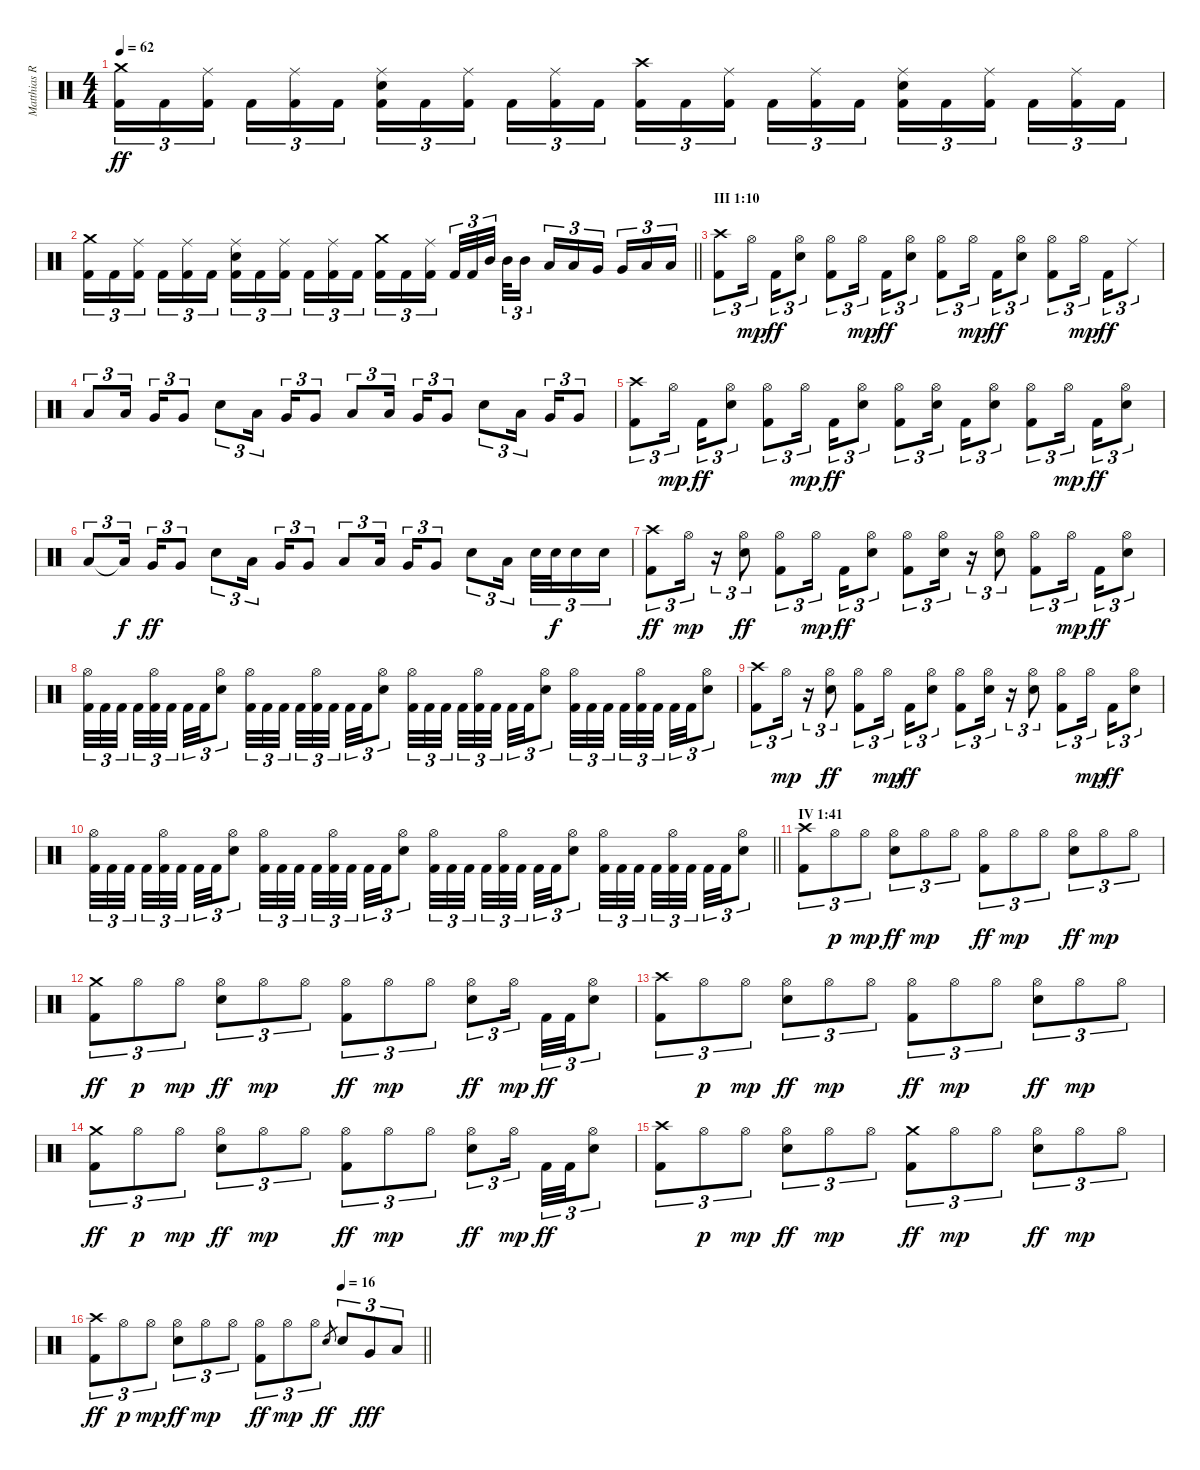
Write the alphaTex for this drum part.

\track ("Matthias R." "Matthias R") {instrument percussion}
\staff {score}
\articulation defaults
\ts (4 4)
\tempo 62
\clef neutral
\ks c
("Crash medium (hit)" "Kick (hit) 2").16{tu (3 2) dy ff} "Kick (hit) 2".16{tu (3 2)} ("Ride (middle)" "Kick (hit) 2").16{tu (3 2) beam splitsecondary} "Kick (hit) 2".16{tu (3 2)} ("Ride (middle)" "Kick (hit) 2").16{tu (3 2)} "Kick (hit) 2".16{tu (3 2)} ("Ride (middle)" "Electric Snare (hit)" "Kick (hit) 2").16{tu (3 2)} "Kick (hit) 2".16{tu (3 2)} ("Ride (middle)" "Kick (hit) 2").16{tu (3 2) beam splitsecondary} "Kick (hit) 2".16{tu (3 2)} ("Ride (middle)" "Kick (hit) 2").16{tu (3 2)} "Kick (hit) 2".16{tu (3 2)} ("Crash high (hit)" "Kick (hit) 2").16{tu (3 2)} "Kick (hit) 2".16{tu (3 2)} ("Ride (middle)" "Kick (hit) 2").16{tu (3 2) beam splitsecondary} "Kick (hit) 2".16{tu (3 2)} ("Ride (middle)" "Kick (hit) 2").16{tu (3 2)} "Kick (hit) 2".16{tu (3 2)} ("Ride (middle)" "Electric Snare (hit)" "Kick (hit) 2").16{tu (3 2)} "Kick (hit) 2".16{tu (3 2)} ("Ride (middle)" "Kick (hit) 2").16{tu (3 2) beam splitsecondary} "Kick (hit) 2".16{tu (3 2)} ("Ride (middle)" "Kick (hit) 2").16{tu (3 2)} "Kick (hit) 2".16{tu (3 2)} |
\barLineRight lightlight
("Crash medium (hit)" "Kick (hit) 2").16{tu (3 2)} "Kick (hit) 2".16{tu (3 2)} ("Ride (middle)" "Kick (hit) 2").16{tu (3 2) beam splitsecondary} "Kick (hit) 2".16{tu (3 2)} ("Ride (middle)" "Kick (hit) 2").16{tu (3 2)} "Kick (hit) 2".16{tu (3 2)} ("Ride (middle)" "Electric Snare (hit)" "Kick (hit) 2").16{tu (3 2)} "Kick (hit) 2".16{tu (3 2)} ("Ride (middle)" "Kick (hit) 2").16{tu (3 2) beam splitsecondary} "Kick (hit) 2".16{tu (3 2)} ("Ride (middle)" "Kick (hit) 2").16{tu (3 2)} "Kick (hit) 2".16{tu (3 2)} ("Crash medium (hit)" "Kick (hit) 2").16{tu (3 2)} "Kick (hit) 2".16{tu (3 2)} ("Ride (middle)" "Kick (hit) 2").16{tu (3 2) beam splitsecondary} "Kick (hit) 2".32{tu (3 2)} "Kick (hit) 2".32{tu (3 2)} "Mid Tom (hit)".32{tu (3 2) beam splitsecondary} "Mid Tom (hit)".32{tu (3 2)} "Mid Tom (hit)".16{tu (3 2)} "Low Tom (hit)".16{tu (3 2)} "Low Tom (hit)".16{tu (3 2)} "Very Low Tom (hit)".16{tu (3 2) beam splitsecondary} "Very Low Tom (hit)".16{tu (3 2)} "Low Floor Tom (hit)".16{tu (3 2)} "Low Floor Tom (hit)".16{tu (3 2)} |
\section ("" "III 1:10")
("Crash high (hit)" "Kick (hit) 2").8{tu (3 2)} "Hi-Hat (open)".16{tu (3 2) dy mp beam splitsecondary} "Kick (hit) 2".16{tu (3 2) dy ff} ("Hi-Hat (open)" "Electric Snare (hit)").8{tu (3 2)} ("Hi-Hat (open)" "Kick (hit) 2").8{tu (3 2)} "Hi-Hat (open)".16{tu (3 2) dy mp beam splitsecondary} "Kick (hit) 2".16{tu (3 2) dy ff} ("Hi-Hat (open)" "Electric Snare (hit)").8{tu (3 2)} ("Hi-Hat (open)" "Kick (hit) 2").8{tu (3 2)} "Hi-Hat (open)".16{tu (3 2) dy mp beam splitsecondary} "Kick (hit) 2".16{tu (3 2) dy ff} ("Hi-Hat (open)" "Electric Snare (hit)").8{tu (3 2)} ("Hi-Hat (open)" "Kick (hit) 2").8{tu (3 2)} "Hi-Hat (open)".16{tu (3 2) dy mp beam splitsecondary} "Kick (hit) 2".16{tu (3 2) dy ff} "Ride (middle)".8{tu (3 2)} |
"Low Tom (hit)".8{tu (3 2)} "Low Tom (hit)".16{tu (3 2) beam splitsecondary} "Very Low Tom (hit)".16{tu (3 2)} "Very Low Tom (hit)".8{tu (3 2)} "Electric Snare (hit)".8{tu (3 2)} "Low Tom (hit)".16{tu (3 2) beam splitsecondary} "Very Low Tom (hit)".16{tu (3 2)} "Very Low Tom (hit)".8{tu (3 2)} "Low Tom (hit)".8{tu (3 2)} "Low Tom (hit)".16{tu (3 2) beam splitsecondary} "Very Low Tom (hit)".16{tu (3 2)} "Very Low Tom (hit)".8{tu (3 2)} "Electric Snare (hit)".8{tu (3 2)} "Low Tom (hit)".16{tu (3 2) beam splitsecondary} "Very Low Tom (hit)".16{tu (3 2)} "Very Low Tom (hit)".8{tu (3 2)} |
("Crash high (hit)" "Kick (hit) 2").8{tu (3 2)} "Hi-Hat (open)".16{tu (3 2) dy mp beam splitsecondary} "Kick (hit) 2".16{tu (3 2) dy ff} ("Hi-Hat (open)" "Electric Snare (hit)").8{tu (3 2)} ("Hi-Hat (open)" "Kick (hit) 2").8{tu (3 2)} "Hi-Hat (open)".16{tu (3 2) dy mp beam splitsecondary} "Kick (hit) 2".16{tu (3 2) dy ff} ("Hi-Hat (open)" "Electric Snare (hit)").8{tu (3 2)} ("Hi-Hat (open)" "Kick (hit) 2").8{tu (3 2)} ("Hi-Hat (open)" "Electric Snare (hit)").16{tu (3 2) beam splitsecondary} "Kick (hit) 2".16{tu (3 2)} ("Hi-Hat (open)" "Electric Snare (hit)").8{tu (3 2)} ("Hi-Hat (open)" "Kick (hit) 2").8{tu (3 2)} "Hi-Hat (open)".16{tu (3 2) dy mp beam splitsecondary} "Kick (hit) 2".16{tu (3 2) dy ff} ("Hi-Hat (open)" "Electric Snare (hit)").8{tu (3 2)} |
"Low Tom (hit)".8{tu (3 2)} "Low Tom (hit)"{t}.16{tu (3 2) dy f beam splitsecondary} "Very Low Tom (hit)".16{tu (3 2) dy ff} "Very Low Tom (hit)".8{tu (3 2)} "Electric Snare (hit)".8{tu (3 2)} "Low Tom (hit)".16{tu (3 2) beam splitsecondary} "Very Low Tom (hit)".16{tu (3 2)} "Very Low Tom (hit)".8{tu (3 2)} "Low Tom (hit)".8{tu (3 2)} "Low Tom (hit)".16{tu (3 2) beam splitsecondary} "Very Low Tom (hit)".16{tu (3 2)} "Very Low Tom (hit)".8{tu (3 2)} "Electric Snare (hit)".8{tu (3 2)} "Low Tom (hit)".16{tu (3 2) beam splitsecondary} "Electric Snare (hit)".32{tu (3 2)} "Electric Snare (hit)".32{tu (3 2) dy f} "Electric Snare (hit)".16{tu (3 2)} "Electric Snare (hit)".16{tu (3 2)} |
("Crash high (hit)" "Kick (hit) 2").8{tu (3 2) dy ff} "Hi-Hat (open)".16{tu (3 2) dy mp} r.16{tu (3 2)} ("Hi-Hat (open)" "Electric Snare (hit)").8{tu (3 2) dy ff} ("Hi-Hat (open)" "Kick (hit) 2").8{tu (3 2)} "Hi-Hat (open)".16{tu (3 2) dy mp beam splitsecondary} "Kick (hit) 2".16{tu (3 2) dy ff} ("Hi-Hat (open)" "Electric Snare (hit)").8{tu (3 2)} ("Hi-Hat (open)" "Kick (hit) 2").8{tu (3 2)} ("Hi-Hat (open)" "Electric Snare (hit)").16{tu (3 2)} r.16{tu (3 2)} ("Hi-Hat (open)" "Electric Snare (hit)").8{tu (3 2)} ("Hi-Hat (open)" "Kick (hit) 2").8{tu (3 2)} "Hi-Hat (open)".16{tu (3 2) dy mp beam splitsecondary} "Kick (hit) 2".16{tu (3 2) dy ff} ("Hi-Hat (open)" "Electric Snare (hit)").8{tu (3 2)} |
("Hi-Hat (open)" "Kick (hit) 2").32{tu (3 2)} "Kick (hit) 2".32{tu (3 2)} "Kick (hit) 2".32{tu (3 2) beam splitsecondary} "Kick (hit) 2".32{tu (3 2)} ("Hi-Hat (open)" "Kick (hit) 2").32{tu (3 2)} "Kick (hit) 2".32{tu (3 2) beam splitsecondary} "Kick (hit) 2".32{tu (3 2)} "Kick (hit) 2".32{tu (3 2)} ("Hi-Hat (open)" "Electric Snare (hit)").8{tu (3 2)} ("Hi-Hat (open)" "Kick (hit) 2").32{tu (3 2)} "Kick (hit) 2".32{tu (3 2)} "Kick (hit) 2".32{tu (3 2) beam splitsecondary} "Kick (hit) 2".32{tu (3 2)} ("Hi-Hat (open)" "Kick (hit) 2").32{tu (3 2)} "Kick (hit) 2".32{tu (3 2) beam splitsecondary} "Kick (hit) 2".32{tu (3 2)} "Kick (hit) 2".32{tu (3 2)} ("Hi-Hat (open)" "Electric Snare (hit)").8{tu (3 2)} ("Hi-Hat (open)" "Kick (hit) 2").32{tu (3 2)} "Kick (hit) 2".32{tu (3 2)} "Kick (hit) 2".32{tu (3 2) beam splitsecondary} "Kick (hit) 2".32{tu (3 2)} ("Hi-Hat (open)" "Kick (hit) 2").32{tu (3 2)} "Kick (hit) 2".32{tu (3 2) beam splitsecondary} "Kick (hit) 2".32{tu (3 2)} "Kick (hit) 2".32{tu (3 2)} ("Hi-Hat (open)" "Electric Snare (hit)").8{tu (3 2)} ("Hi-Hat (open)" "Kick (hit) 2").32{tu (3 2)} "Kick (hit) 2".32{tu (3 2)} "Kick (hit) 2".32{tu (3 2) beam splitsecondary} "Kick (hit) 2".32{tu (3 2)} ("Hi-Hat (open)" "Kick (hit) 2").32{tu (3 2)} "Kick (hit) 2".32{tu (3 2) beam splitsecondary} "Kick (hit) 2".32{tu (3 2)} "Kick (hit) 2".32{tu (3 2)} ("Hi-Hat (open)" "Electric Snare (hit)").8{tu (3 2)} |
("Crash high (hit)" "Kick (hit) 2").8{tu (3 2)} "Hi-Hat (open)".16{tu (3 2) dy mp} r.16{tu (3 2)} ("Hi-Hat (open)" "Electric Snare (hit)").8{tu (3 2) dy ff} ("Hi-Hat (open)" "Kick (hit) 2").8{tu (3 2)} "Hi-Hat (open)".16{tu (3 2) dy mp beam splitsecondary} "Kick (hit) 2".16{tu (3 2) dy ff} ("Hi-Hat (open)" "Electric Snare (hit)").8{tu (3 2)} ("Hi-Hat (open)" "Kick (hit) 2").8{tu (3 2)} ("Hi-Hat (open)" "Electric Snare (hit)").16{tu (3 2)} r.16{tu (3 2)} ("Hi-Hat (open)" "Electric Snare (hit)").8{tu (3 2)} ("Hi-Hat (open)" "Kick (hit) 2").8{tu (3 2)} "Hi-Hat (open)".16{tu (3 2) dy mp beam splitsecondary} "Kick (hit) 2".16{tu (3 2) dy ff} ("Hi-Hat (open)" "Electric Snare (hit)").8{tu (3 2)} |
\barLineRight lightlight
("Hi-Hat (open)" "Kick (hit) 2").32{tu (3 2)} "Kick (hit) 2".32{tu (3 2)} "Kick (hit) 2".32{tu (3 2) beam splitsecondary} "Kick (hit) 2".32{tu (3 2)} ("Hi-Hat (open)" "Kick (hit) 2").32{tu (3 2)} "Kick (hit) 2".32{tu (3 2) beam splitsecondary} "Kick (hit) 2".32{tu (3 2)} "Kick (hit) 2".32{tu (3 2)} ("Hi-Hat (open)" "Electric Snare (hit)").8{tu (3 2)} ("Hi-Hat (open)" "Kick (hit) 2").32{tu (3 2)} "Kick (hit) 2".32{tu (3 2)} "Kick (hit) 2".32{tu (3 2) beam splitsecondary} "Kick (hit) 2".32{tu (3 2)} ("Hi-Hat (open)" "Kick (hit) 2").32{tu (3 2)} "Kick (hit) 2".32{tu (3 2) beam splitsecondary} "Kick (hit) 2".32{tu (3 2)} "Kick (hit) 2".32{tu (3 2)} ("Hi-Hat (open)" "Electric Snare (hit)").8{tu (3 2)} ("Hi-Hat (open)" "Kick (hit) 2").32{tu (3 2)} "Kick (hit) 2".32{tu (3 2)} "Kick (hit) 2".32{tu (3 2) beam splitsecondary} "Kick (hit) 2".32{tu (3 2)} ("Hi-Hat (open)" "Kick (hit) 2").32{tu (3 2)} "Kick (hit) 2".32{tu (3 2) beam splitsecondary} "Kick (hit) 2".32{tu (3 2)} "Kick (hit) 2".32{tu (3 2)} ("Hi-Hat (open)" "Electric Snare (hit)").8{tu (3 2)} ("Hi-Hat (open)" "Kick (hit) 2").32{tu (3 2)} "Kick (hit) 2".32{tu (3 2)} "Kick (hit) 2".32{tu (3 2) beam splitsecondary} "Kick (hit) 2".32{tu (3 2)} ("Hi-Hat (open)" "Kick (hit) 2").32{tu (3 2)} "Kick (hit) 2".32{tu (3 2) beam splitsecondary} "Kick (hit) 2".32{tu (3 2)} "Kick (hit) 2".32{tu (3 2)} ("Hi-Hat (open)" "Electric Snare (hit)").8{tu (3 2)} |
\section ("" "IV 1:41")
("Crash high (hit)" "Kick (hit) 2").8{tu (3 2)} "Hi-Hat (open)".8{tu (3 2) dy p} "Hi-Hat (open)".8{tu (3 2) dy mp} ("Hi-Hat (open)" "Electric Snare (hit)").8{tu (3 2) dy ff} "Hi-Hat (open)".8{tu (3 2) dy mp} "Hi-Hat (open)".8{tu (3 2)} ("Hi-Hat (open)" "Kick (hit) 2").8{tu (3 2) dy ff} "Hi-Hat (open)".8{tu (3 2) dy mp} "Hi-Hat (open)".8{tu (3 2)} ("Hi-Hat (open)" "Electric Snare (hit)").8{tu (3 2) dy ff} "Hi-Hat (open)".8{tu (3 2) dy mp} "Hi-Hat (open)".8{tu (3 2)} |
("Crash medium (hit)" "Kick (hit) 2").8{tu (3 2) dy ff} "Hi-Hat (open)".8{tu (3 2) dy p} "Hi-Hat (open)".8{tu (3 2) dy mp} ("Hi-Hat (open)" "Electric Snare (hit)").8{tu (3 2) dy ff} "Hi-Hat (open)".8{tu (3 2) dy mp} "Hi-Hat (open)".8{tu (3 2)} ("Hi-Hat (open)" "Kick (hit) 2").8{tu (3 2) dy ff} "Hi-Hat (open)".8{tu (3 2) dy mp} "Hi-Hat (open)".8{tu (3 2)} ("Hi-Hat (open)" "Electric Snare (hit)").8{tu (3 2) dy ff} "Hi-Hat (open)".16{tu (3 2) dy mp beam splitsecondary} "Kick (hit) 2".32{tu (3 2) dy ff} "Kick (hit) 2".32{tu (3 2)} ("Hi-Hat (open)" "Electric Snare (hit)").8{tu (3 2)} |
("Crash high (hit)" "Kick (hit) 2").8{tu (3 2)} "Hi-Hat (open)".8{tu (3 2) dy p} "Hi-Hat (open)".8{tu (3 2) dy mp} ("Hi-Hat (open)" "Electric Snare (hit)").8{tu (3 2) dy ff} "Hi-Hat (open)".8{tu (3 2) dy mp} "Hi-Hat (open)".8{tu (3 2)} ("Hi-Hat (open)" "Kick (hit) 2").8{tu (3 2) dy ff} "Hi-Hat (open)".8{tu (3 2) dy mp} "Hi-Hat (open)".8{tu (3 2)} ("Hi-Hat (open)" "Electric Snare (hit)").8{tu (3 2) dy ff} "Hi-Hat (open)".8{tu (3 2) dy mp} "Hi-Hat (open)".8{tu (3 2)} |
("Crash medium (hit)" "Kick (hit) 2").8{tu (3 2) dy ff} "Hi-Hat (open)".8{tu (3 2) dy p} "Hi-Hat (open)".8{tu (3 2) dy mp} ("Hi-Hat (open)" "Electric Snare (hit)").8{tu (3 2) dy ff} "Hi-Hat (open)".8{tu (3 2) dy mp} "Hi-Hat (open)".8{tu (3 2)} ("Hi-Hat (open)" "Kick (hit) 2").8{tu (3 2) dy ff} "Hi-Hat (open)".8{tu (3 2) dy mp} "Hi-Hat (open)".8{tu (3 2)} ("Hi-Hat (open)" "Electric Snare (hit)").8{tu (3 2) dy ff} "Hi-Hat (open)".16{tu (3 2) dy mp beam splitsecondary} "Kick (hit) 2".32{tu (3 2) dy ff} "Kick (hit) 2".32{tu (3 2)} ("Hi-Hat (open)" "Electric Snare (hit)").8{tu (3 2)} |
("Crash high (hit)" "Kick (hit) 2").8{tu (3 2)} "Hi-Hat (open)".8{tu (3 2) dy p} "Hi-Hat (open)".8{tu (3 2) dy mp} ("Hi-Hat (open)" "Electric Snare (hit)").8{tu (3 2) dy ff} "Hi-Hat (open)".8{tu (3 2) dy mp} "Hi-Hat (open)".8{tu (3 2)} ("Crash medium (hit)" "Kick (hit) 2").8{tu (3 2) dy ff} "Hi-Hat (open)".8{tu (3 2) dy mp} "Hi-Hat (open)".8{tu (3 2)} ("Hi-Hat (open)" "Electric Snare (hit)").8{tu (3 2) dy ff} "Hi-Hat (open)".8{tu (3 2) dy mp} "Hi-Hat (open)".8{tu (3 2)} |
\tempo (16 0.75)
\barLineRight lightlight
("Crash high (hit)" "Kick (hit) 2").8{tu (3 2) dy ff} "Hi-Hat (open)".8{tu (3 2) dy p} "Hi-Hat (open)".8{tu (3 2) dy mp} ("Hi-Hat (open)" "Electric Snare (hit)").8{tu (3 2) dy ff} "Hi-Hat (open)".8{tu (3 2) dy mp} "Hi-Hat (open)".8{tu (3 2)} ("Hi-Hat (open)" "Kick (hit) 2").8{tu (3 2) dy ff} "Hi-Hat (open)".8{tu (3 2) dy mp} "Hi-Hat (open)".8{tu (3 2)} "Electric Snare (hit)".8{gr dy ff} "Electric Snare (hit)".8{tu (3 2)} "Very Low Tom (hit)".8{tu (3 2) dy fff} "Low Tom (hit)".8{tu (3 2)}
